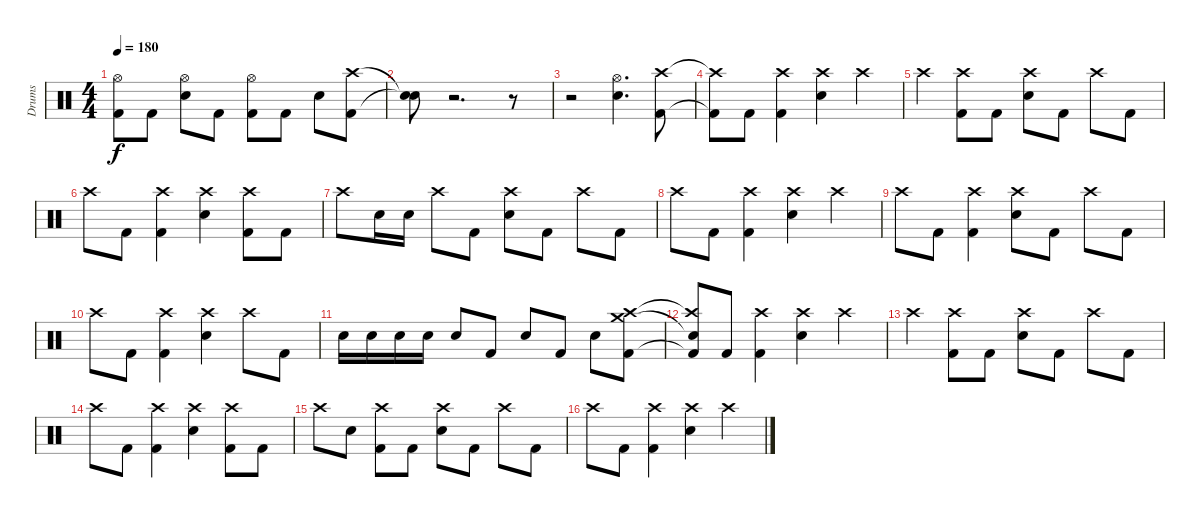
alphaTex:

\track ("Drums" "Drums") {instrument percussion}
\staff {score}
\articulation defaults
\ts (4 4)
\tempo 180
\clef neutral
\ks c
("Hi-Hat (open)" "Kick (hit) 2").8{dy f} "Kick (hit) 2".8 ("Hi-Hat (open)" "Electric Snare (hit)").8 "Kick (hit) 2".8 ("Hi-Hat (open)" "Kick (hit) 2").8 "Kick (hit) 2".8 "Electric Snare (hit)".8 ("Crash high (hit)" "Kick (hit) 2").8 |
("Snare (hit)"{t} "Snare (hit)"{t}).8 r.2{d volume 0} r.8 |
r.2 ("Hi-Hat (open)" "Electric Snare (hit)").4{d volume 16} ("Crash high (hit)" "Kick (hit) 2").8 |
("Crash high (hit)"{t} "Kick (hit) 2"{t}).8 "Kick (hit) 2".8 ("Crash high (hit)" "Kick (hit) 2").4 ("Crash high (hit)" "Electric Snare (hit)").4 "Crash high (hit)".4 |
"Crash high (hit)".4 ("Crash high (hit)" "Kick (hit) 2").8 "Kick (hit) 2".8 ("Crash high (hit)" "Electric Snare (hit)").8 "Kick (hit) 2".8 "Crash high (hit)".8 "Kick (hit) 2".8 |
"Crash high (hit)".8 "Kick (hit) 2".8 ("Crash high (hit)" "Kick (hit) 2").4 ("Crash high (hit)" "Electric Snare (hit)").4 ("Crash high (hit)" "Kick (hit) 2").8 "Kick (hit) 2".8 |
"Crash high (hit)".8 "Electric Snare (hit)".16 "Electric Snare (hit)".16 "Crash high (hit)".8 "Kick (hit) 2".8 ("Crash high (hit)" "Electric Snare (hit)").8 "Kick (hit) 2".8 "Crash high (hit)".8 "Kick (hit) 2".8 |
"Crash high (hit)".8 "Kick (hit) 2".8 ("Crash high (hit)" "Kick (hit) 2").4 ("Crash high (hit)" "Electric Snare (hit)").4 "Crash high (hit)".4 |
"Crash high (hit)".8 "Kick (hit) 2".8 ("Crash high (hit)" "Kick (hit) 2").4 ("Crash high (hit)" "Electric Snare (hit)").8 "Kick (hit) 2".8 "Crash high (hit)".8 "Kick (hit) 2".8 |
"Crash high (hit)".8 "Kick (hit) 2".8 ("Crash high (hit)" "Kick (hit) 2").4 ("Crash high (hit)" "Electric Snare (hit)").4 "Crash high (hit)".8 "Kick (hit) 2".8 |
"Electric Snare (hit)".16 "Electric Snare (hit)".16 "Electric Snare (hit)".16 "Electric Snare (hit)".16 "Electric Snare (hit)".8 "Kick (hit) 2".8 "Electric Snare (hit)".8 "Kick (hit) 2".8 "Electric Snare (hit)".8 ("Crash high (hit)" "Crash medium (hit)" "Kick (hit) 2").8 |
("Crash high (hit)"{t} "Snare (hit)"{t} "Kick (hit) 2"{t}).8 "Kick (hit) 2".8 ("Crash high (hit)" "Kick (hit) 2").4 ("Crash high (hit)" "Electric Snare (hit)").4 "Crash high (hit)".4 |
"Crash high (hit)".4 ("Crash high (hit)" "Kick (hit) 2").8 "Kick (hit) 2".8 ("Crash high (hit)" "Electric Snare (hit)").8 "Kick (hit) 2".8 "Crash high (hit)".8 "Kick (hit) 2".8 |
"Crash high (hit)".8 "Kick (hit) 2".8 ("Crash high (hit)" "Kick (hit) 2").4 ("Crash high (hit)" "Electric Snare (hit)").4 ("Crash high (hit)" "Kick (hit) 2").8 "Kick (hit) 2".8 |
"Crash high (hit)".8 "Electric Snare (hit)".8 ("Crash high (hit)" "Kick (hit) 2").8 "Kick (hit) 2".8 ("Crash high (hit)" "Electric Snare (hit)").8 "Kick (hit) 2".8 "Crash high (hit)".8 "Kick (hit) 2".8 |
"Crash high (hit)".8 "Kick (hit) 2".8 ("Crash high (hit)" "Kick (hit) 2").4 ("Crash high (hit)" "Electric Snare (hit)").4 "Crash high (hit)".4
